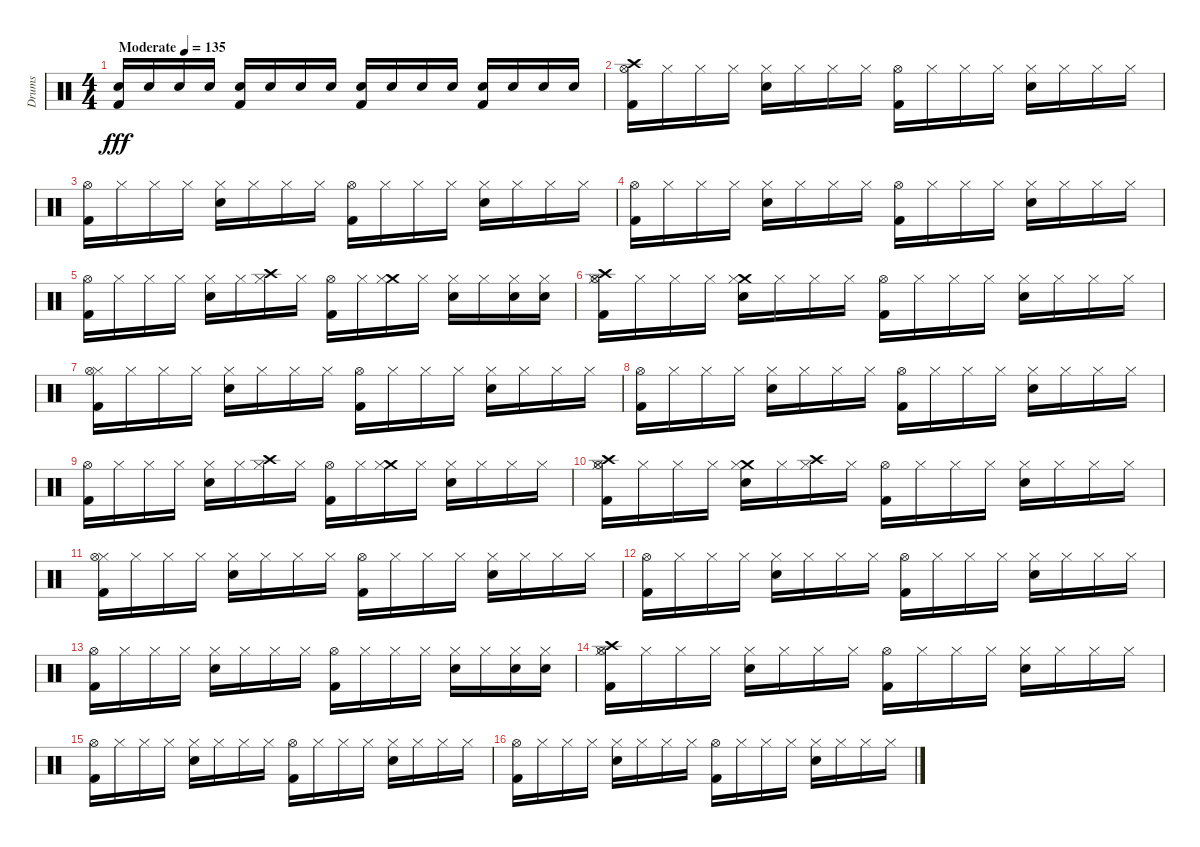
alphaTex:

\track ("Drums" "Drums") {instrument percussion}
\staff {score}
\articulation defaults
\ts (4 4)
\tempo (135 "Moderate")
\clef neutral
\ks c
("Kick (hit) 2" "Snare (hit) 2").16{dy fff} "Snare (hit) 2".16 "Snare (hit) 2".16 "Snare (hit) 2".16 ("Kick (hit) 2" "Snare (hit) 2").16 "Snare (hit) 2".16 "Snare (hit) 2".16 "Snare (hit) 2".16 ("Kick (hit) 2" "Snare (hit) 2").16 "Snare (hit) 2".16 "Snare (hit) 2".16 "Snare (hit) 2".16 ("Snare (hit) 2" "Kick (hit) 2").16 "Snare (hit) 2".16 "Snare (hit) 2".16 "Snare (hit) 2".16 |
("Crash high (hit)" "Hi-Hat (open)" "Kick (hit) 2").16 "Hi-Hat (closed)".16 "Hi-Hat (closed)".16 "Hi-Hat (closed)".16 ("Snare (hit) 2" "Hi-Hat (closed)").16 "Hi-Hat (closed)".16 "Hi-Hat (closed)".16 "Hi-Hat (closed)".16 ("Kick (hit) 2" "Hi-Hat (open)").16 "Hi-Hat (closed)".16 "Hi-Hat (closed)".16 "Hi-Hat (closed)".16 ("Snare (hit) 2" "Hi-Hat (closed)").16 "Hi-Hat (closed)".16 "Hi-Hat (closed)".16 "Hi-Hat (closed)".16 |
("Hi-Hat (open)" "Kick (hit) 2").16 "Hi-Hat (closed)".16 "Hi-Hat (closed)".16 "Hi-Hat (closed)".16 ("Snare (hit) 2" "Hi-Hat (closed)").16 "Hi-Hat (closed)".16 "Hi-Hat (closed)".16 "Hi-Hat (closed)".16 ("Kick (hit) 2" "Hi-Hat (open)").16 "Hi-Hat (closed)".16 "Hi-Hat (closed)".16 "Hi-Hat (closed)".16 ("Snare (hit) 2" "Hi-Hat (closed)").16 "Hi-Hat (closed)".16 "Hi-Hat (closed)".16 "Hi-Hat (closed)".16 |
("Hi-Hat (open)" "Kick (hit) 2").16 "Hi-Hat (closed)".16 "Hi-Hat (closed)".16 "Hi-Hat (closed)".16 ("Snare (hit) 2" "Hi-Hat (closed)").16 "Hi-Hat (closed)".16 "Hi-Hat (closed)".16 "Hi-Hat (closed)".16 ("Kick (hit) 2" "Hi-Hat (open)").16 "Hi-Hat (closed)".16 "Hi-Hat (closed)".16 "Hi-Hat (closed)".16 ("Snare (hit) 2" "Hi-Hat (closed)").16 "Hi-Hat (closed)".16 "Hi-Hat (closed)".16 "Hi-Hat (closed)".16 |
("Hi-Hat (open)" "Kick (hit) 2").16 "Hi-Hat (closed)".16 "Hi-Hat (closed)".16 "Hi-Hat (closed)".16 ("Snare (hit) 2" "Hi-Hat (closed)").16 "Hi-Hat (closed)".16 ("Crash high (hit)" "Hi-Hat (closed)").16 "Hi-Hat (closed)".16 ("Kick (hit) 2" "Hi-Hat (open)").16 "Hi-Hat (closed)".16 ("Crash medium (hit)" "Hi-Hat (closed)").16 "Hi-Hat (closed)".16 ("Snare (hit) 2" "Hi-Hat (closed)").16 "Hi-Hat (closed)".16 ("Snare (hit) 2" "Hi-Hat (closed)").16 ("Snare (hit) 2" "Hi-Hat (closed)").16 |
("Hi-Hat (closed)" "Crash high (hit)" "Hi-Hat (open)" "Kick (hit) 2").16 "Hi-Hat (closed)".16 "Hi-Hat (closed)".16 "Hi-Hat (closed)".16 ("Crash medium (hit)" "Snare (hit) 2" "Hi-Hat (closed)").16 "Hi-Hat (closed)".16 "Hi-Hat (closed)".16 "Hi-Hat (closed)".16 ("Kick (hit) 2" "Hi-Hat (open)").16 "Hi-Hat (closed)".16 "Hi-Hat (closed)".16 "Hi-Hat (closed)".16 ("Snare (hit) 2" "Hi-Hat (closed)").16 "Hi-Hat (closed)".16 "Hi-Hat (closed)".16 "Hi-Hat (closed)".16 |
("Hi-Hat (closed)" "Hi-Hat (open)" "Kick (hit) 2").16 "Hi-Hat (closed)".16 "Hi-Hat (closed)".16 "Hi-Hat (closed)".16 ("Snare (hit) 2" "Hi-Hat (closed)").16 "Hi-Hat (closed)".16 "Hi-Hat (closed)".16 "Hi-Hat (closed)".16 ("Kick (hit) 2" "Hi-Hat (open)").16 "Hi-Hat (closed)".16 "Hi-Hat (closed)".16 "Hi-Hat (closed)".16 ("Snare (hit) 2" "Hi-Hat (closed)").16 "Hi-Hat (closed)".16 "Hi-Hat (closed)".16 "Hi-Hat (closed)".16 |
("Hi-Hat (open)" "Kick (hit) 2").16 "Hi-Hat (closed)".16 "Hi-Hat (closed)".16 "Hi-Hat (closed)".16 ("Snare (hit) 2" "Hi-Hat (closed)").16 "Hi-Hat (closed)".16 "Hi-Hat (closed)".16 "Hi-Hat (closed)".16 ("Kick (hit) 2" "Hi-Hat (open)").16 "Hi-Hat (closed)".16 "Hi-Hat (closed)".16 "Hi-Hat (closed)".16 ("Snare (hit) 2" "Hi-Hat (closed)").16 "Hi-Hat (closed)".16 "Hi-Hat (closed)".16 "Hi-Hat (closed)".16 |
("Hi-Hat (open)" "Kick (hit) 2").16 "Hi-Hat (closed)".16 "Hi-Hat (closed)".16 "Hi-Hat (closed)".16 ("Snare (hit) 2" "Hi-Hat (closed)").16 "Hi-Hat (closed)".16 ("Crash high (hit)" "Hi-Hat (closed)").16 "Hi-Hat (closed)".16 ("Kick (hit) 2" "Hi-Hat (open)").16 "Hi-Hat (closed)".16 ("Crash medium (hit)" "Hi-Hat (closed)").16 "Hi-Hat (closed)".16 ("Snare (hit) 2" "Hi-Hat (closed)").16 "Hi-Hat (closed)".16 "Hi-Hat (closed)".16 "Hi-Hat (closed)".16 |
("Hi-Hat (closed)" "Crash high (hit)" "Hi-Hat (open)" "Kick (hit) 2").16 "Hi-Hat (closed)".16 "Hi-Hat (closed)".16 "Hi-Hat (closed)".16 ("Crash medium (hit)" "Snare (hit) 2" "Hi-Hat (closed)").16 "Hi-Hat (closed)".16 ("Hi-Hat (closed)" "Crash high (hit)").16 "Hi-Hat (closed)".16 ("Kick (hit) 2" "Hi-Hat (open)").16 "Hi-Hat (closed)".16 "Hi-Hat (closed)".16 "Hi-Hat (closed)".16 ("Snare (hit) 2" "Hi-Hat (closed)").16 "Hi-Hat (closed)".16 "Hi-Hat (closed)".16 "Hi-Hat (closed)".16 |
("Hi-Hat (closed)" "Hi-Hat (open)" "Kick (hit) 2").16 "Hi-Hat (closed)".16 "Hi-Hat (closed)".16 "Hi-Hat (closed)".16 ("Snare (hit) 2" "Hi-Hat (closed)").16 "Hi-Hat (closed)".16 "Hi-Hat (closed)".16 "Hi-Hat (closed)".16 ("Kick (hit) 2" "Hi-Hat (open)").16 "Hi-Hat (closed)".16 "Hi-Hat (closed)".16 "Hi-Hat (closed)".16 ("Snare (hit) 2" "Hi-Hat (closed)").16 "Hi-Hat (closed)".16 "Hi-Hat (closed)".16 "Hi-Hat (closed)".16 |
("Hi-Hat (open)" "Kick (hit) 2").16 "Hi-Hat (closed)".16 "Hi-Hat (closed)".16 "Hi-Hat (closed)".16 ("Snare (hit) 2" "Hi-Hat (closed)").16 "Hi-Hat (closed)".16 "Hi-Hat (closed)".16 "Hi-Hat (closed)".16 ("Kick (hit) 2" "Hi-Hat (open)").16 "Hi-Hat (closed)".16 "Hi-Hat (closed)".16 "Hi-Hat (closed)".16 ("Snare (hit) 2" "Hi-Hat (closed)").16 "Hi-Hat (closed)".16 "Hi-Hat (closed)".16 "Hi-Hat (closed)".16 |
("Hi-Hat (open)" "Kick (hit) 2").16 "Hi-Hat (closed)".16 "Hi-Hat (closed)".16 "Hi-Hat (closed)".16 ("Snare (hit) 2" "Hi-Hat (closed)").16 "Hi-Hat (closed)".16 "Hi-Hat (closed)".16 "Hi-Hat (closed)".16 ("Kick (hit) 2" "Hi-Hat (open)").16 "Hi-Hat (closed)".16 "Hi-Hat (closed)".16 "Hi-Hat (closed)".16 ("Snare (hit) 2" "Hi-Hat (closed)").16 "Hi-Hat (closed)".16 ("Snare (hit) 2" "Hi-Hat (closed)").16 ("Snare (hit) 2" "Hi-Hat (closed)").16 |
("Hi-Hat (closed)" "Crash high (hit)" "Hi-Hat (open)" "Kick (hit) 2").16 "Hi-Hat (closed)".16 "Hi-Hat (closed)".16 "Hi-Hat (closed)".16 ("Snare (hit) 2" "Hi-Hat (closed)").16 "Hi-Hat (closed)".16 "Hi-Hat (closed)".16 "Hi-Hat (closed)".16 ("Kick (hit) 2" "Hi-Hat (open)").16 "Hi-Hat (closed)".16 "Hi-Hat (closed)".16 "Hi-Hat (closed)".16 ("Snare (hit) 2" "Hi-Hat (closed)").16 "Hi-Hat (closed)".16 "Hi-Hat (closed)".16 "Hi-Hat (closed)".16 |
("Hi-Hat (open)" "Kick (hit) 2").16 "Hi-Hat (closed)".16 "Hi-Hat (closed)".16 "Hi-Hat (closed)".16 ("Snare (hit) 2" "Hi-Hat (closed)").16 "Hi-Hat (closed)".16 "Hi-Hat (closed)".16 "Hi-Hat (closed)".16 ("Kick (hit) 2" "Hi-Hat (open)").16 "Hi-Hat (closed)".16 "Hi-Hat (closed)".16 "Hi-Hat (closed)".16 ("Snare (hit) 2" "Hi-Hat (closed)").16 "Hi-Hat (closed)".16 "Hi-Hat (closed)".16 "Hi-Hat (closed)".16 |
("Hi-Hat (open)" "Kick (hit) 2").16 "Hi-Hat (closed)".16 "Hi-Hat (closed)".16 "Hi-Hat (closed)".16 ("Snare (hit) 2" "Hi-Hat (closed)").16 "Hi-Hat (closed)".16 "Hi-Hat (closed)".16 "Hi-Hat (closed)".16 ("Kick (hit) 2" "Hi-Hat (open)").16 "Hi-Hat (closed)".16 "Hi-Hat (closed)".16 "Hi-Hat (closed)".16 ("Snare (hit) 2" "Hi-Hat (closed)").16 "Hi-Hat (closed)".16 "Hi-Hat (closed)".16 "Hi-Hat (closed)".16
